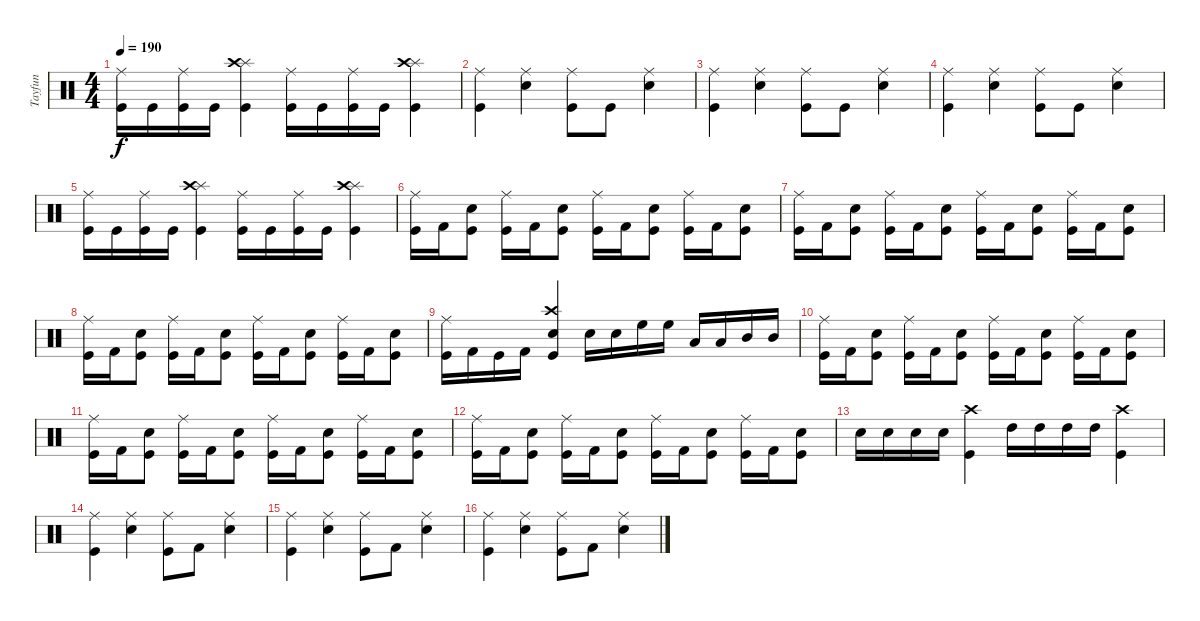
\track ("Tayfun" "Tayfun") {instrument percussion}
\staff {score}
\articulation defaults
\ts (4 4)
\tempo 190
\clef neutral
\ks c
("Ride (middle)" "Kick (hit)").16{dy f} "Kick (hit)".16 ("Ride (middle)" "Kick (hit)").16 "Kick (hit)".16 ("Splash (hit)" "Crash high (hit)" "Kick (hit)").4 ("Ride (middle)" "Kick (hit)").16 "Kick (hit)".16 ("Ride (middle)" "Kick (hit)").16 "Kick (hit)".16 ("Splash (hit)" "Crash high (hit)" "Kick (hit)").4 |
("Ride (middle)" "Kick (hit)").4 ("Ride (middle)" "Snare (hit) 2").4 ("Ride (middle)" "Kick (hit)").8 "Kick (hit)".8 ("Ride (middle)" "Snare (hit) 2").4 |
("Ride (middle)" "Kick (hit)").4 ("Ride (middle)" "Snare (hit) 2").4 ("Ride (middle)" "Kick (hit)").8 "Kick (hit)".8 ("Ride (middle)" "Snare (hit) 2").4 |
("Ride (middle)" "Kick (hit)").4 ("Ride (middle)" "Snare (hit) 2").4 ("Ride (middle)" "Kick (hit)").8 "Kick (hit)".8 ("Ride (middle)" "Snare (hit) 2").4 |
("Ride (middle)" "Kick (hit)").16 "Kick (hit)".16 ("Ride (middle)" "Kick (hit)").16 "Kick (hit)".16 ("Splash (hit)" "Crash high (hit)" "Kick (hit)").4 ("Ride (middle)" "Kick (hit)").16 "Kick (hit)".16 ("Ride (middle)" "Kick (hit)").16 "Kick (hit)".16 ("Splash (hit)" "Crash high (hit)" "Kick (hit)").4 |
("Kick (hit)" "Ride (middle)").16 "Kick (hit) 2".16 ("Kick (hit)" "Snare (hit) 2").8 ("Kick (hit)" "Ride (middle)").16 "Kick (hit) 2".16 ("Kick (hit)" "Snare (hit) 2").8 ("Kick (hit)" "Ride (middle)").16 "Kick (hit) 2".16 ("Kick (hit)" "Snare (hit) 2").8 ("Kick (hit)" "Ride (middle)").16 "Kick (hit) 2".16 ("Kick (hit)" "Snare (hit) 2").8 |
("Kick (hit)" "Ride (middle)").16 "Kick (hit) 2".16 ("Kick (hit)" "Snare (hit) 2").8 ("Kick (hit)" "Ride (middle)").16 "Kick (hit) 2".16 ("Kick (hit)" "Snare (hit) 2").8 ("Kick (hit)" "Ride (middle)").16 "Kick (hit) 2".16 ("Kick (hit)" "Snare (hit) 2").8 ("Kick (hit)" "Ride (middle)").16 "Kick (hit) 2".16 ("Kick (hit)" "Snare (hit) 2").8 |
("Kick (hit)" "Ride (middle)").16 "Kick (hit) 2".16 ("Kick (hit)" "Snare (hit) 2").8 ("Kick (hit)" "Ride (middle)").16 "Kick (hit) 2".16 ("Kick (hit)" "Snare (hit) 2").8 ("Kick (hit)" "Ride (middle)").16 "Kick (hit) 2".16 ("Kick (hit)" "Snare (hit) 2").8 ("Kick (hit)" "Ride (middle)").16 "Kick (hit) 2".16 ("Kick (hit)" "Snare (hit) 2").8 |
("Kick (hit)" "Ride (middle)").16 "Kick (hit) 2".16 "Kick (hit)".16 "Kick (hit) 2".16 ("Crash high (hit)" "Snare (hit) 2" "Kick (hit)").4 "Snare (hit) 2".16 "Snare (hit) 2".16 "High Floor Tom (hit)".16 "High Floor Tom (hit)".16 "Low Tom (hit)".16 "Low Tom (hit)".16 "Mid Tom (hit)".16 "Mid Tom (hit)".16 |
("Kick (hit)" "Ride (middle)").16 "Kick (hit) 2".16 ("Kick (hit)" "Snare (hit) 2").8 ("Kick (hit)" "Ride (middle)").16 "Kick (hit) 2".16 ("Kick (hit)" "Snare (hit) 2").8 ("Kick (hit)" "Ride (middle)").16 "Kick (hit) 2".16 ("Kick (hit)" "Snare (hit) 2").8 ("Kick (hit)" "Ride (middle)").16 "Kick (hit) 2".16 ("Kick (hit)" "Snare (hit) 2").8 |
("Kick (hit)" "Ride (middle)").16 "Kick (hit) 2".16 ("Kick (hit)" "Snare (hit) 2").8 ("Kick (hit)" "Ride (middle)").16 "Kick (hit) 2".16 ("Kick (hit)" "Snare (hit) 2").8 ("Kick (hit)" "Ride (middle)").16 "Kick (hit) 2".16 ("Kick (hit)" "Snare (hit) 2").8 ("Kick (hit)" "Ride (middle)").16 "Kick (hit) 2".16 ("Kick (hit)" "Snare (hit) 2").8 |
("Kick (hit)" "Ride (middle)").16 "Kick (hit) 2".16 ("Kick (hit)" "Snare (hit) 2").8 ("Kick (hit)" "Ride (middle)").16 "Kick (hit) 2".16 ("Kick (hit)" "Snare (hit) 2").8 ("Kick (hit)" "Ride (middle)").16 "Kick (hit) 2".16 ("Kick (hit)" "Snare (hit) 2").8 ("Kick (hit)" "Ride (middle)").16 "Kick (hit) 2".16 ("Kick (hit)" "Snare (hit) 2").8 |
"Snare (hit) 2".16 "Snare (hit) 2".16 "Snare (hit) 2".16 "Snare (hit) 2".16 ("Crash high (hit)" "Kick (hit)").4 "High Tom (hit)".16 "High Tom (hit)".16 "High Tom (hit)".16 "High Tom (hit)".16 ("Crash high (hit)" "Kick (hit)").4 |
("Ride (middle)" "Kick (hit)").4 ("Ride (middle)" "Snare (hit) 2").4 ("Ride (middle)" "Kick (hit)").8 "Kick (hit) 2".8 ("Ride (middle)" "Snare (hit) 2").4 |
("Ride (middle)" "Kick (hit)").4 ("Ride (middle)" "Snare (hit) 2").4 ("Ride (middle)" "Kick (hit)").8 "Kick (hit) 2".8 ("Ride (middle)" "Snare (hit) 2").4 |
("Ride (middle)" "Kick (hit)").4 ("Ride (middle)" "Snare (hit) 2").4 ("Ride (middle)" "Kick (hit)").8 "Kick (hit) 2".8 ("Ride (middle)" "Snare (hit) 2").4
